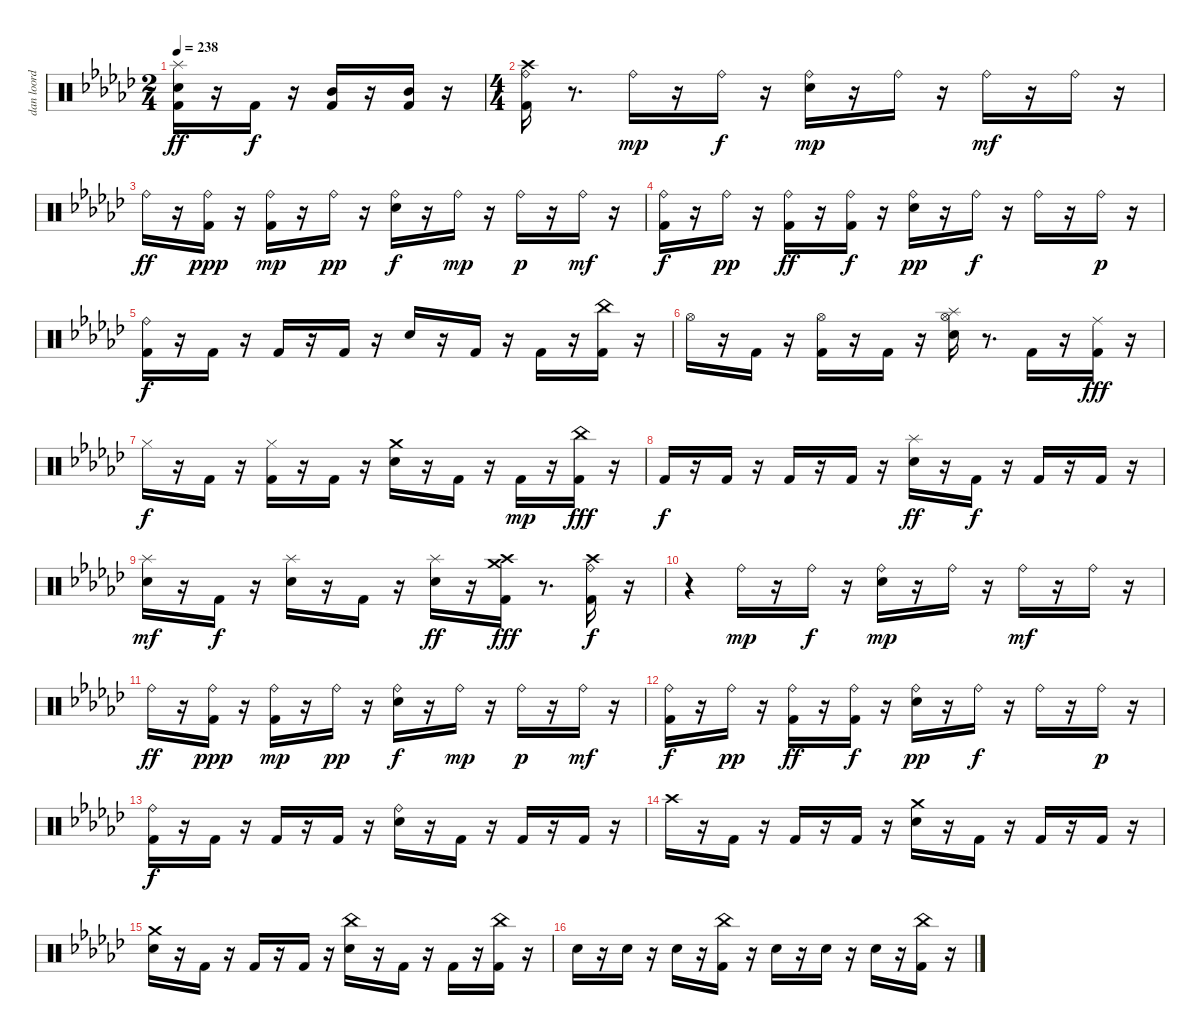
\track ("dan loord foord" "dan loord ") {instrument percussion}
\staff {score}
\articulation defaults
\ts (2 4)
\tempo 238
\clef neutral
\ks gb
("Kick (hit) 2" "Snare (hit) 2" "Splash (hit)").16{dy ff} r.16 "Kick (hit) 2".16{dy f} r.16 ("Kick (hit) 2" "Mid Tom (hit)").16 r.16 ("Kick (hit) 2" "Mid Tom (hit)").16 r.16 |
\ts (4 4)
("Kick (hit) 2" "Crash high (hit)" "Ride (bell)").16 r.8{d} "Ride (bell)".16{dy mp} r.16 "Ride (bell)".16{dy f} r.16 ("Snare (hit) 2" "Ride (bell)").16{dy mp} r.16 "Ride (bell)".16 r.16 "Ride (bell)".16{dy mf} r.16 "Ride (bell)".16 r.16 |
"Ride (bell)".16{dy ff} r.16 ("Kick (hit) 2" "Ride (bell)").16{dy ppp} r.16 ("Kick (hit) 2" "Ride (bell)").16{dy mp} r.16 "Ride (bell)".16{dy pp} r.16 ("Snare (hit) 2" "Ride (bell)").16{dy f} r.16 "Ride (bell)".16{dy mp} r.16 "Ride (bell)".16{dy p} r.16 "Ride (bell)".16{dy mf} r.16 |
("Kick (hit) 2" "Ride (bell)").16{dy f} r.16 "Ride (bell)".16{dy pp} r.16 ("Kick (hit) 2" "Ride (bell)").16{dy ff} r.16 ("Kick (hit) 2" "Ride (bell)").16{dy f} r.16 ("Snare (hit) 2" "Ride (bell)").16{dy pp} r.16 "Ride (bell)".16{dy f} r.16 "Ride (bell)".16 r.16 "Ride (bell)".16{dy p} r.16 |
("Kick (hit) 2" "Ride (bell)").16{dy f} r.16 "Kick (hit) 2".16 r.16 "Kick (hit) 2".16 r.16 "Kick (hit) 2".16 r.16 "Snare (hit) 2".16 r.16 "Kick (hit) 2".16 r.16 "Kick (hit) 2".16 r.16 ("Kick (hit) 2" "China (hit)").16 r.16 |
"Hi-Hat (open)".16 r.16 "Kick (hit) 2".16 r.16 ("Kick (hit) 2" "Hi-Hat (open)").16 r.16 "Kick (hit) 2".16 r.16 ("Snare (hit) 2" "Hi-Hat (open)" "Splash (hit)").16 r.8{d} "Kick (hit) 2".16 r.16 ("Kick (hit) 2" "Ride (middle)").16{dy fff} r.16 |
"Hi-Hat (closed)".16{dy f} r.16 "Kick (hit) 2".16 r.16 ("Kick (hit) 2" "Hi-Hat (closed)").16 r.16 "Kick (hit) 2".16 r.16 ("Snare (hit) 2" "Crash medium (hit)").16 r.16 "Kick (hit) 2".16 r.16 "Kick (hit) 2".16{dy mp} r.16 ("Kick (hit) 2" "China (hit)").16{dy fff} r.16 |
"Kick (hit) 2".16{dy f} r.16 "Kick (hit) 2".16 r.16 "Kick (hit) 2".16 r.16 "Kick (hit) 2".16 r.16 ("Snare (hit) 2" "Splash (hit)").16{dy ff} r.16 "Kick (hit) 2".16{dy f} r.16 "Kick (hit) 2".16 r.16 "Kick (hit) 2".16 r.16 |
("Snare (hit) 2" "Splash (hit)").16{dy mf} r.16 "Kick (hit) 2".16{dy f} r.16 ("Snare (hit) 2" "Splash (hit)").16 r.16 "Kick (hit) 2".16 r.16 ("Snare (hit) 2" "Splash (hit)").16{dy ff} r.16 ("Kick (hit) 2" "Crash high (hit)" "Crash medium (hit)").16{dy fff} r.8{d} ("Kick (hit) 2" "Crash high (hit)" "Ride (bell)").16{dy f} r.16 |
r.4 "Ride (bell)".16{dy mp} r.16 "Ride (bell)".16{dy f} r.16 ("Snare (hit) 2" "Ride (bell)").16{dy mp} r.16 "Ride (bell)".16 r.16 "Ride (bell)".16{dy mf} r.16 "Ride (bell)".16 r.16 |
"Ride (bell)".16{dy ff} r.16 ("Kick (hit) 2" "Ride (bell)").16{dy ppp} r.16 ("Kick (hit) 2" "Ride (bell)").16{dy mp} r.16 "Ride (bell)".16{dy pp} r.16 ("Snare (hit) 2" "Ride (bell)").16{dy f} r.16 "Ride (bell)".16{dy mp} r.16 "Ride (bell)".16{dy p} r.16 "Ride (bell)".16{dy mf} r.16 |
("Kick (hit) 2" "Ride (bell)").16{dy f} r.16 "Ride (bell)".16{dy pp} r.16 ("Kick (hit) 2" "Ride (bell)").16{dy ff} r.16 ("Kick (hit) 2" "Ride (bell)").16{dy f} r.16 ("Snare (hit) 2" "Ride (bell)").16{dy pp} r.16 "Ride (bell)".16{dy f} r.16 "Ride (bell)".16 r.16 "Ride (bell)".16{dy p} r.16 |
("Kick (hit) 2" "Ride (bell)").16{dy f} r.16 "Kick (hit) 2".16 r.16 "Kick (hit) 2".16 r.16 "Kick (hit) 2".16 r.16 ("Snare (hit) 2" "Ride (bell)").16 r.16 "Kick (hit) 2".16 r.16 "Kick (hit) 2".16 r.16 "Kick (hit) 2".16 r.16 |
"Crash high (hit)".16 r.16 "Kick (hit) 2".16 r.16 "Kick (hit) 2".16 r.16 "Kick (hit) 2".16 r.16 ("Snare (hit) 2" "Crash medium (hit)").16 r.16 "Kick (hit) 2".16 r.16 "Kick (hit) 2".16 r.16 "Kick (hit) 2".16 r.16 |
("Snare (hit) 2" "Crash medium (hit)").16 r.16 "Kick (hit) 2".16 r.16 "Kick (hit) 2".16 r.16 "Kick (hit) 2".16 r.16 ("Snare (hit) 2" "China (hit)").16 r.16 "Kick (hit) 2".16 r.16 "Kick (hit) 2".16 r.16 ("Kick (hit) 2" "China (hit)").16 r.16 |
"Snare (hit) 2".16 r.16 "Snare (hit) 2".16 r.16 "Snare (hit) 2".16 r.16 ("Kick (hit) 2" "China (hit)").16 r.16 "Snare (hit) 2".16 r.16 "Snare (hit) 2".16 r.16 "Snare (hit) 2".16 r.16 ("Kick (hit) 2" "China (hit)").16 r.16
